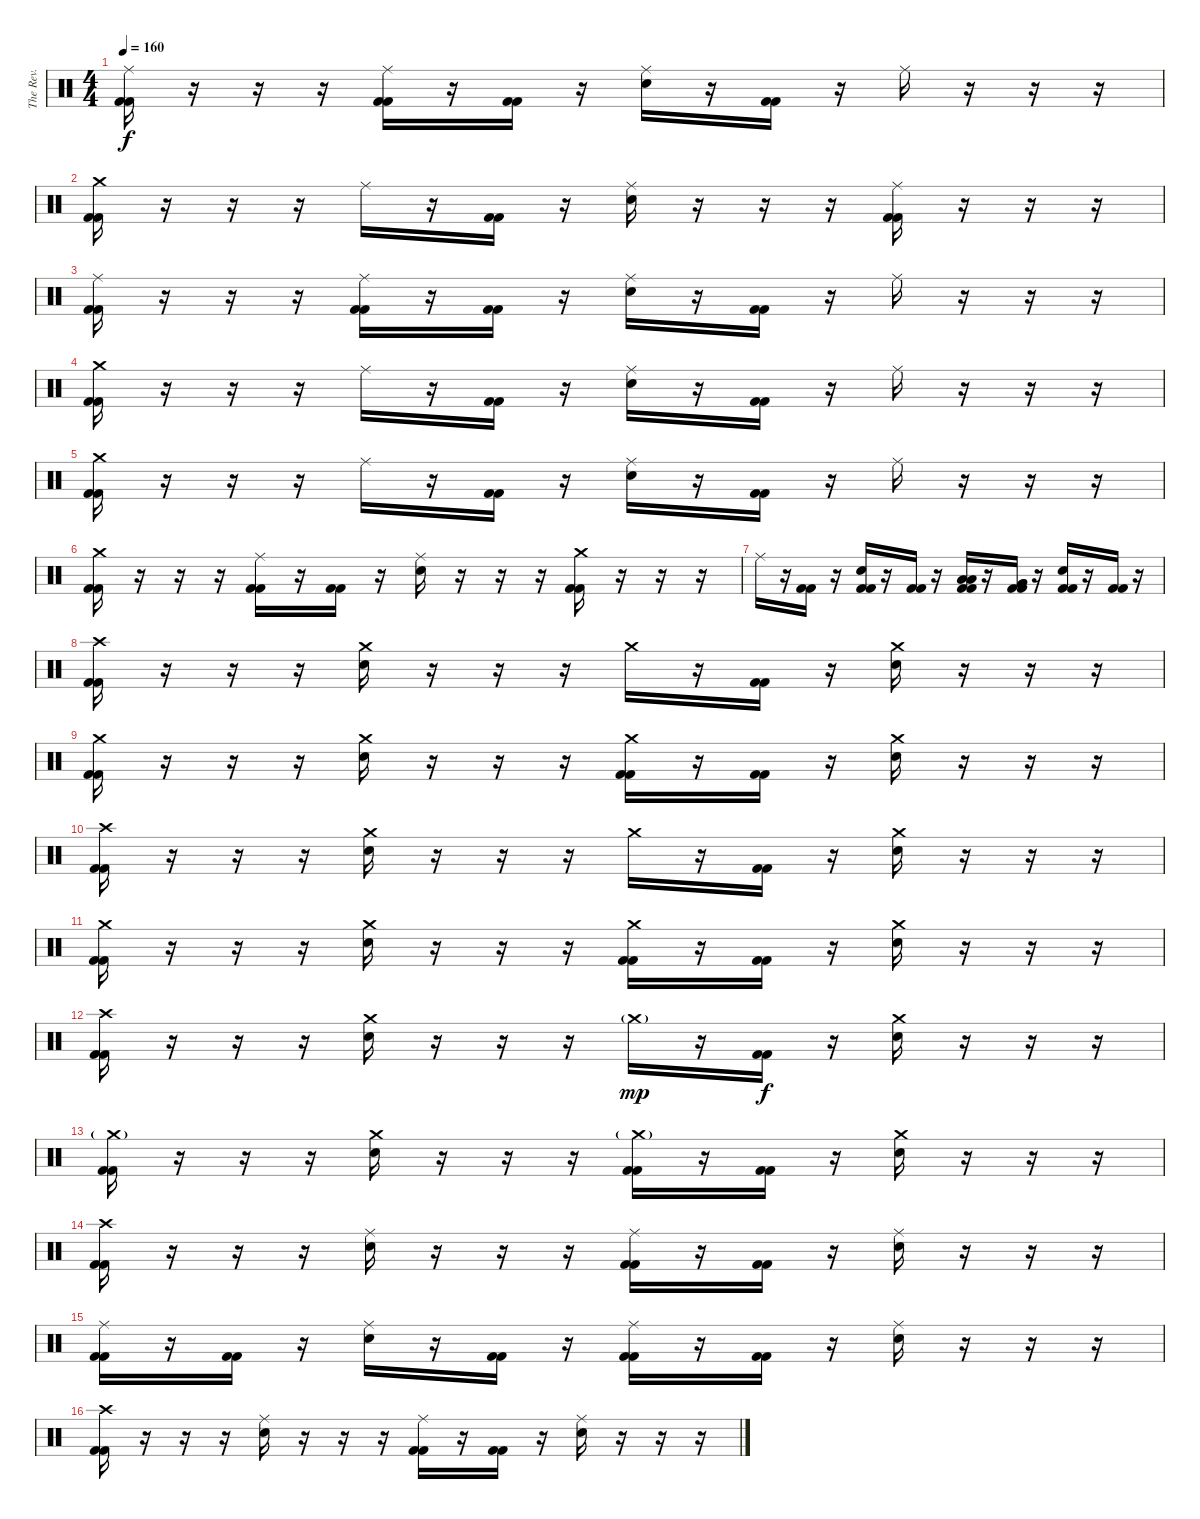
\track ("The Rev." "The Rev.") {instrument percussion}
\staff {score}
\articulation defaults
\ts (4 4)
\tempo 160
\clef neutral
\ks c
("Ride (middle)" "Kick (hit) 2" "Kick (hit) 2").16{dy f} r.16 r.16 r.16 ("Ride (middle)" "Kick (hit) 2" "Kick (hit) 2").16 r.16 ("Kick (hit) 2" "Kick (hit) 2").16 r.16 ("Ride (middle)" "Electric Snare (hit)").16 r.16 ("Kick (hit) 2" "Kick (hit) 2").16 r.16 "Ride (middle)".16 r.16 r.16 r.16 |
("Crash medium (hit)" "Kick (hit) 2" "Kick (hit) 2").16 r.16 r.16 r.16 "Ride (middle)".16 r.16 ("Kick (hit) 2" "Kick (hit) 2").16 r.16 ("Ride (middle)" "Electric Snare (hit)").16 r.16 r.16 r.16 ("Ride (middle)" "Kick (hit) 2" "Kick (hit) 2").16 r.16 r.16 r.16 |
("Ride (middle)" "Kick (hit) 2" "Kick (hit) 2").16 r.16 r.16 r.16 ("Ride (middle)" "Kick (hit) 2" "Kick (hit) 2").16 r.16 ("Kick (hit) 2" "Kick (hit) 2").16 r.16 ("Ride (middle)" "Electric Snare (hit)").16 r.16 ("Kick (hit) 2" "Kick (hit) 2").16 r.16 "Ride (middle)".16 r.16 r.16 r.16 |
("Crash medium (hit)" "Kick (hit) 2" "Kick (hit) 2").16 r.16 r.16 r.16 "Ride (middle)".16 r.16 ("Kick (hit) 2" "Kick (hit) 2").16 r.16 ("Ride (middle)" "Electric Snare (hit)").16 r.16 ("Kick (hit) 2" "Kick (hit) 2").16 r.16 "Ride (middle)".16 r.16 r.16 r.16 |
("Crash medium (hit)" "Kick (hit) 2" "Kick (hit) 2").16 r.16 r.16 r.16 "Ride (middle)".16 r.16 ("Kick (hit) 2" "Kick (hit) 2").16 r.16 ("Ride (middle)" "Electric Snare (hit)").16 r.16 ("Kick (hit) 2" "Kick (hit) 2").16 r.16 "Ride (middle)".16 r.16 r.16 r.16 |
("Crash medium (hit)" "Kick (hit) 2" "Kick (hit) 2").16 r.16 r.16 r.16 ("Ride (middle)" "Kick (hit) 2" "Kick (hit) 2").16 r.16 ("Kick (hit) 2" "Kick (hit) 2").16 r.16 ("Ride (middle)" "Electric Snare (hit)").16 r.16 r.16 r.16 ("Crash medium (hit)" "Kick (hit) 2" "Kick (hit) 2").16 r.16 r.16 r.16 |
"Ride (middle)".16 r.16 ("Kick (hit) 2" "Kick (hit) 2").16 r.16 ("Electric Snare (hit)" "Kick (hit) 2" "Kick (hit) 2").16 r.16 ("Kick (hit) 2" "Kick (hit) 2").16 r.16 ("Low Tom (hit)" "Low Tom (hit)" "Kick (hit) 2" "Kick (hit) 2").16 r.16 ("Very Low Tom (hit)" "Very Low Tom (hit)" "Kick (hit) 2" "Kick (hit) 2").16 r.16 ("Electric Snare (hit)" "Kick (hit) 2" "Kick (hit) 2").16 r.16 ("Kick (hit) 2" "Kick (hit) 2").16 r.16 |
("Crash high (hit)" "Kick (hit) 2" "Kick (hit) 2").16 r.16 r.16 r.16 ("Crash medium (hit)" "Electric Snare (hit)").16 r.16 r.16 r.16 "Crash medium (hit)".16 r.16 ("Kick (hit) 2" "Kick (hit) 2").16 r.16 ("Crash medium (hit)" "Electric Snare (hit)").16 r.16 r.16 r.16 |
("Crash medium (hit)" "Kick (hit) 2" "Kick (hit) 2").16 r.16 r.16 r.16 ("Crash medium (hit)" "Electric Snare (hit)").16 r.16 r.16 r.16 ("Crash medium (hit)" "Kick (hit) 2" "Kick (hit) 2").16 r.16 ("Kick (hit) 2" "Kick (hit) 2").16 r.16 ("Crash medium (hit)" "Electric Snare (hit)").16 r.16 r.16 r.16 |
("Crash high (hit)" "Kick (hit) 2" "Kick (hit) 2").16 r.16 r.16 r.16 ("Crash medium (hit)" "Electric Snare (hit)").16 r.16 r.16 r.16 "Crash medium (hit)".16 r.16 ("Kick (hit) 2" "Kick (hit) 2").16 r.16 ("Crash medium (hit)" "Electric Snare (hit)").16 r.16 r.16 r.16 |
("Crash medium (hit)" "Kick (hit) 2" "Kick (hit) 2").16 r.16 r.16 r.16 ("Crash medium (hit)" "Electric Snare (hit)").16 r.16 r.16 r.16 ("Crash medium (hit)" "Kick (hit) 2" "Kick (hit) 2").16 r.16 ("Kick (hit) 2" "Kick (hit) 2").16 r.16 ("Crash medium (hit)" "Electric Snare (hit)").16 r.16 r.16 r.16 |
("Crash high (hit)" "Kick (hit) 2" "Kick (hit) 2").16 r.16 r.16 r.16 ("Crash medium (hit)" "Electric Snare (hit)").16 r.16 r.16 r.16 "Crash medium (hit)"{g}.16{dy mp} r.16 ("Kick (hit) 2" "Kick (hit) 2").16{dy f} r.16 ("Crash medium (hit)" "Electric Snare (hit)").16 r.16 r.16 r.16 |
("Crash medium (hit)"{g} "Kick (hit) 2" "Kick (hit) 2").16 r.16 r.16 r.16 ("Crash medium (hit)" "Electric Snare (hit)").16 r.16 r.16 r.16 ("Crash medium (hit)"{g} "Kick (hit) 2" "Kick (hit) 2").16 r.16 ("Kick (hit) 2" "Kick (hit) 2").16 r.16 ("Crash medium (hit)" "Electric Snare (hit)").16 r.16 r.16 r.16 |
("Crash high (hit)" "Kick (hit) 2" "Kick (hit) 2").16 r.16 r.16 r.16 ("Ride (middle)" "Electric Snare (hit)").16 r.16 r.16 r.16 ("Ride (middle)" "Kick (hit) 2" "Kick (hit) 2").16 r.16 ("Kick (hit) 2" "Kick (hit) 2").16 r.16 ("Ride (middle)" "Electric Snare (hit)").16 r.16 r.16 r.16 |
("Ride (middle)" "Kick (hit) 2" "Kick (hit) 2").16 r.16 ("Kick (hit) 2" "Kick (hit) 2").16 r.16 ("Ride (middle)" "Electric Snare (hit)").16 r.16 ("Kick (hit) 2" "Kick (hit) 2").16 r.16 ("Ride (middle)" "Kick (hit) 2" "Kick (hit) 2").16 r.16 ("Kick (hit) 2" "Kick (hit) 2").16 r.16 ("Ride (middle)" "Electric Snare (hit)").16 r.16 r.16 r.16 |
("Crash high (hit)" "Kick (hit) 2" "Kick (hit) 2").16 r.16 r.16 r.16 ("Ride (middle)" "Electric Snare (hit)").16 r.16 r.16 r.16 ("Ride (middle)" "Kick (hit) 2" "Kick (hit) 2").16 r.16 ("Kick (hit) 2" "Kick (hit) 2").16 r.16 ("Ride (middle)" "Electric Snare (hit)").16 r.16 r.16 r.16
